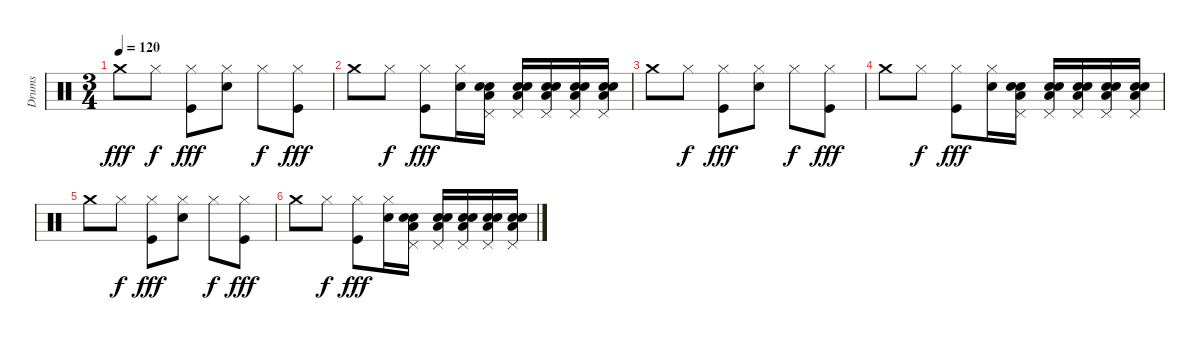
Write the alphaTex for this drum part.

\track ("Drums" "Drums") {instrument percussion}
\staff {score}
\articulation defaults
\ts (3 4)
\tempo 120
\clef neutral
\ks c "Crash medium (hit)".8{dy fff} "Hi-Hat (closed)".8{dy f}
("Kick (hit)" "Hi-Hat (closed)").8{dy fff} ("Snare (hit) 2" "Hi-Hat (closed)").8 "Hi-Hat (closed)".8{dy f} ("Kick (hit)" "Hi-Hat (closed)").8{dy fff} |
"Crash medium (hit)".8 "Hi-Hat (closed)".8{dy f} ("Kick (hit)" "Hi-Hat (closed)").8{dy fff} ("Snare (hit) 2" "Hi-Hat (closed)").16 ("Low Floor Tom (hit)" "Snare (hit) 2" "Snare (hit) 2" "Pedal Hi-Hat (hit)").16 ("Low Floor Tom (hit)" "Snare (hit) 2" "Snare (hit) 2" "Pedal Hi-Hat (hit)").16 ("Low Floor Tom (hit)" "Snare (hit) 2" "Snare (hit) 2" "Pedal Hi-Hat (hit)").16 ("Low Floor Tom (hit)" "Snare (hit) 2" "Snare (hit) 2" "Pedal Hi-Hat (hit)").16 ("Low Floor Tom (hit)" "Snare (hit) 2" "Snare (hit) 2" "Pedal Hi-Hat (hit)").16 |
"Crash medium (hit)".8 "Hi-Hat (closed)".8{dy f} ("Kick (hit)" "Hi-Hat (closed)").8{dy fff} ("Snare (hit) 2" "Hi-Hat (closed)").8 "Hi-Hat (closed)".8{dy f} ("Kick (hit)" "Hi-Hat (closed)").8{dy fff} |
"Crash medium (hit)".8 "Hi-Hat (closed)".8{dy f} ("Kick (hit)" "Hi-Hat (closed)").8{dy fff} ("Snare (hit) 2" "Hi-Hat (closed)").16 ("Low Floor Tom (hit)" "Snare (hit) 2" "Snare (hit) 2" "Pedal Hi-Hat (hit)").16 ("Low Floor Tom (hit)" "Snare (hit) 2" "Snare (hit) 2" "Pedal Hi-Hat (hit)").16 ("Low Floor Tom (hit)" "Snare (hit) 2" "Snare (hit) 2" "Pedal Hi-Hat (hit)").16 ("Low Floor Tom (hit)" "Snare (hit) 2" "Snare (hit) 2" "Pedal Hi-Hat (hit)").16 ("Low Floor Tom (hit)" "Snare (hit) 2" "Snare (hit) 2" "Pedal Hi-Hat (hit)").16 |
"Crash medium (hit)".8 "Hi-Hat (closed)".8{dy f} ("Kick (hit)" "Hi-Hat (closed)").8{dy fff} ("Snare (hit) 2" "Hi-Hat (closed)").8 "Hi-Hat (closed)".8{dy f} ("Kick (hit)" "Hi-Hat (closed)").8{dy fff} |
"Crash medium (hit)".8 "Hi-Hat (closed)".8{dy f} ("Kick (hit)" "Hi-Hat (closed)").8{dy fff} ("Snare (hit) 2" "Hi-Hat (closed)").16 ("Low Floor Tom (hit)" "Snare (hit) 2" "Snare (hit) 2" "Pedal Hi-Hat (hit)").16 ("Low Floor Tom (hit)" "Snare (hit) 2" "Snare (hit) 2" "Pedal Hi-Hat (hit)").16 ("Low Floor Tom (hit)" "Snare (hit) 2" "Snare (hit) 2" "Pedal Hi-Hat (hit)").16 ("Low Floor Tom (hit)" "Snare (hit) 2" "Snare (hit) 2" "Pedal Hi-Hat (hit)").16 ("Low Floor Tom (hit)" "Snare (hit) 2" "Snare (hit) 2" "Pedal Hi-Hat (hit)").16
